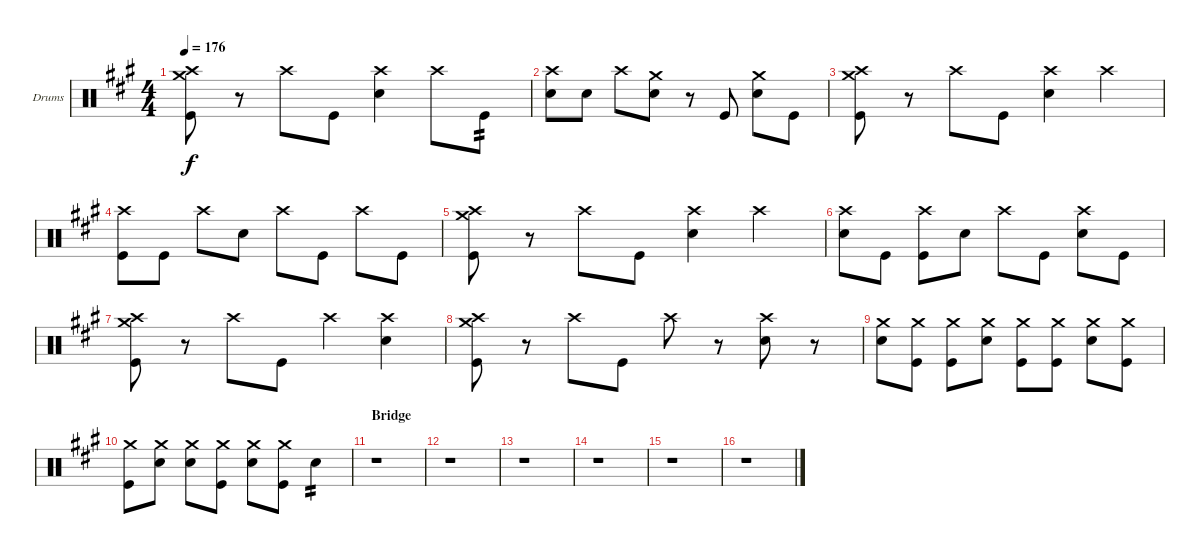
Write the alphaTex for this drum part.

\defaultSystemsLayout 4
\bracketExtendMode groupsimilarinstruments
\firstSystemTrackNameOrientation horizontal
\otherSystemsTrackNameOrientation horizontal
\track ("Drumkit" "Drums") {instrument percussion}
\staff {score}
\articulation defaults
\ts (4 4)
\tempo 176
\clef neutral
\scale
0.333333
\ks a
("Crash high (hit)" "Crash medium (hit)" "Kick (hit)").8{dy f} r.8 "Crash high (hit)".8 "Kick (hit)".8 ("Crash high (hit)" "Snare (hit) 2").4 "Crash high (hit)".8 "Kick (hit)".8{tp 2} |
\scale
0.333333 ("Crash high (hit)" "Snare (hit) 2").8 "Snare (hit) 2".8 "Crash high (hit)".8 ("Crash medium (hit)" "Snare (hit) 2").8 r.8 "Kick (hit)".8 ("Crash medium (hit)" "Snare (hit) 2").8 "Kick (hit)".8 |
\scale
0.333333 ("Crash high (hit)" "Crash medium (hit)" "Kick (hit)").8 r.8 "Crash high (hit)".8 "Kick (hit)".8 ("Crash high (hit)" "Snare (hit) 2").4 "Crash high (hit)".4 |
\scale
0.333333 ("Crash high (hit)" "Kick (hit)").8 "Kick (hit)".8 "Crash high (hit)".8 "Snare (hit) 2".8 "Crash high (hit)".8 "Kick (hit)".8 "Crash high (hit)".8 "Kick (hit)".8 |
\scale
0.333333 ("Crash high (hit)" "Crash medium (hit)" "Kick (hit)").8 r.8 "Crash high (hit)".8 "Kick (hit)".8 ("Crash high (hit)" "Snare (hit) 2").4 "Crash high (hit)".4 |
\scale
0.333333 ("Crash high (hit)" "Snare (hit) 2").8 "Kick (hit)".8 ("Crash high (hit)" "Kick (hit)").8 "Snare (hit) 2".8 "Crash high (hit)".8 "Kick (hit)".8 ("Crash high (hit)" "Snare (hit) 2").8 "Kick (hit)".8 |
\scale
0.333333 ("Crash high (hit)" "Crash medium (hit)" "Kick (hit)").8 r.8 "Crash high (hit)".8 "Kick (hit)".8 "Crash high (hit)".4 ("Crash high (hit)" "Snare (hit) 2").4 |
\scale
0.333333 ("Crash high (hit)" "Crash medium (hit)" "Kick (hit)").8 r.8 "Crash high (hit)".8 "Kick (hit)".8 "Crash high (hit)".8 r.8 ("Crash high (hit)" "Snare (hit) 2").8 r.8 |
\scale
0.333333 ("Crash medium (hit)" "Snare (hit) 2").8 ("Crash medium (hit)" "Kick (hit)").8 ("Crash medium (hit)" "Kick (hit)").8 ("Crash medium (hit)" "Snare (hit) 2").8 ("Crash medium (hit)" "Kick (hit)").8 ("Crash medium (hit)" "Kick (hit)").8 ("Crash medium (hit)" "Snare (hit) 2").8 ("Crash medium (hit)" "Kick (hit)").8 |
\scale
0.333333 ("Crash medium (hit)" "Kick (hit)").8 ("Crash medium (hit)" "Snare (hit) 2").8 ("Crash medium (hit)" "Snare (hit) 2").8 ("Crash medium (hit)" "Kick (hit)").8 ("Crash medium (hit)" "Snare (hit) 2").8 ("Crash medium (hit)" "Kick (hit)").8 "Snare (hit) 2".4{tp 2} |
\section ("" "Bridge")
\scale
0.333333 r.1 |
\scale
0.333333 r.1 |
\scale
0.333333 r.1 |
\scale
0.333333 r.1 |
\scale
0.333333 r.1 |
\scale
0.333333 r.1
